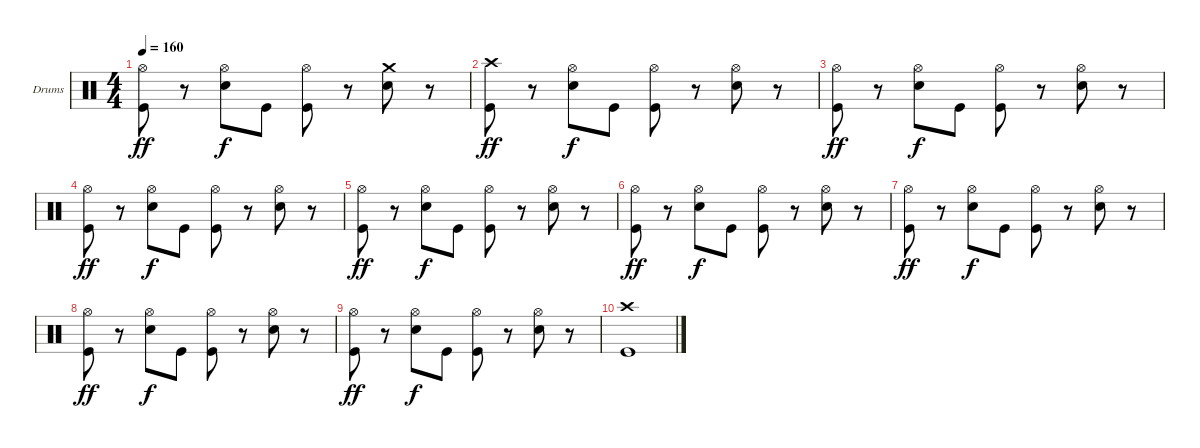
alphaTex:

\bracketExtendMode groupsimilarinstruments
\firstSystemTrackNameOrientation horizontal
\otherSystemsTrackNameOrientation horizontal
\track ("Drumkit" "Drums") {instrument percussion}
\staff {score}
\articulation defaults
\ts (4 4)
\tempo 160
\clef neutral
\ks c
("Kick (hit)" "Hi-Hat (open)").8{dy ff} r.8 ("Snare (hit) 2" "Hi-Hat (open)").8{dy f} "Kick (hit)".8 ("Kick (hit)" "Hi-Hat (open)").8 r.8 ("Snare (hit) 2" "Crash medium (hit)").8 r.8 |
("Crash high (hit)" "Kick (hit)").8{dy ff} r.8 ("Snare (hit) 2" "Hi-Hat (open)").8{dy f} "Kick (hit)".8 ("Kick (hit)" "Hi-Hat (open)").8 r.8 ("Snare (hit) 2" "Hi-Hat (open)").8 r.8 |
("Kick (hit)" "Hi-Hat (open)").8{dy ff} r.8 ("Snare (hit) 2" "Hi-Hat (open)").8{dy f} "Kick (hit)".8 ("Kick (hit)" "Hi-Hat (open)").8 r.8 ("Snare (hit) 2" "Hi-Hat (open)").8 r.8 |
("Kick (hit)" "Hi-Hat (open)").8{dy ff} r.8 ("Snare (hit) 2" "Hi-Hat (open)").8{dy f} "Kick (hit)".8 ("Kick (hit)" "Hi-Hat (open)").8 r.8 ("Snare (hit) 2" "Hi-Hat (open)").8 r.8 |
("Kick (hit)" "Hi-Hat (open)").8{dy ff} r.8 ("Snare (hit) 2" "Hi-Hat (open)").8{dy f} "Kick (hit)".8 ("Kick (hit)" "Hi-Hat (open)").8 r.8 ("Snare (hit) 2" "Hi-Hat (open)").8 r.8 |
("Kick (hit)" "Hi-Hat (open)").8{dy ff} r.8 ("Snare (hit) 2" "Hi-Hat (open)").8{dy f} "Kick (hit)".8 ("Kick (hit)" "Hi-Hat (open)").8 r.8 ("Snare (hit) 2" "Hi-Hat (open)").8 r.8 |
("Kick (hit)" "Hi-Hat (open)").8{dy ff} r.8 ("Snare (hit) 2" "Hi-Hat (open)").8{dy f} "Kick (hit)".8 ("Kick (hit)" "Hi-Hat (open)").8 r.8 ("Snare (hit) 2" "Hi-Hat (open)").8 r.8 |
("Kick (hit)" "Hi-Hat (open)").8{dy ff} r.8 ("Snare (hit) 2" "Hi-Hat (open)").8{dy f} "Kick (hit)".8 ("Kick (hit)" "Hi-Hat (open)").8 r.8 ("Snare (hit) 2" "Hi-Hat (open)").8 r.8 |
("Kick (hit)" "Hi-Hat (open)").8{dy ff} r.8 ("Snare (hit) 2" "Hi-Hat (open)").8{dy f} "Kick (hit)".8 ("Kick (hit)" "Hi-Hat (open)").8 r.8 ("Snare (hit) 2" "Hi-Hat (open)").8 r.8 |
("Crash high (hit)" "Kick (hit)").1
